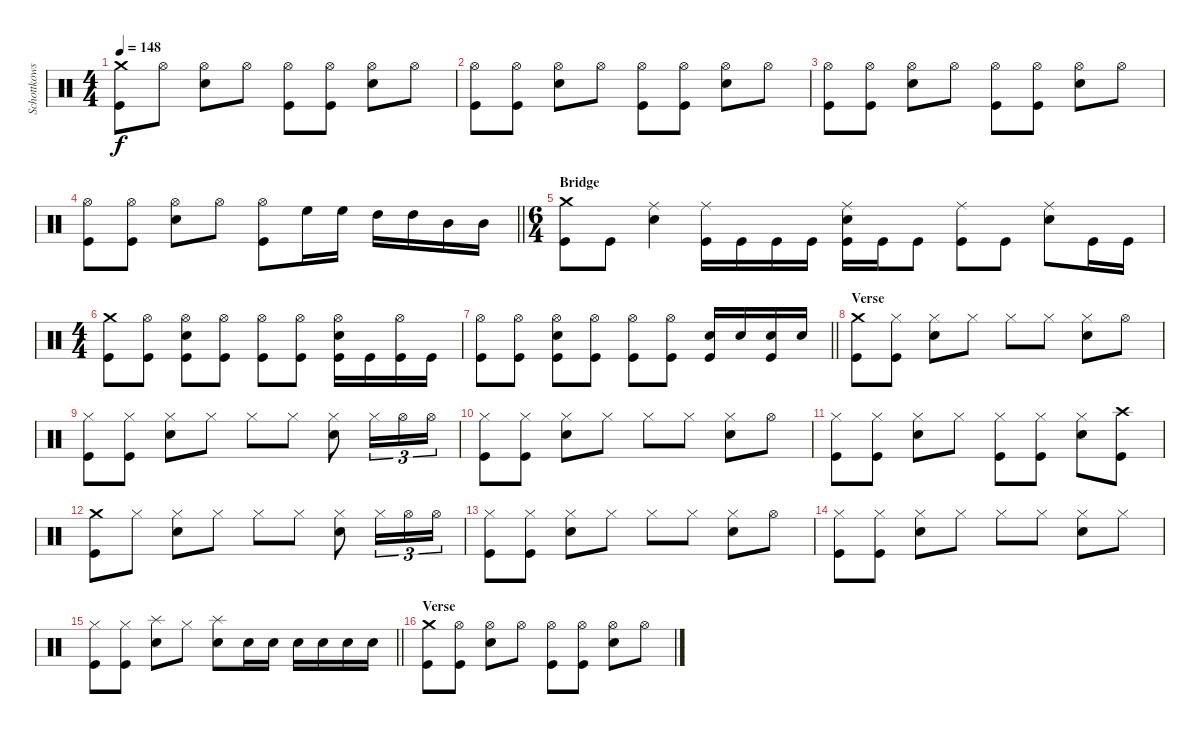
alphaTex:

\track ("Schottkowski" "Schottkows") {instrument percussion}
\staff {score}
\articulation defaults
\ts (4 4)
\tempo 148
\clef neutral
\ks c
("Crash medium (hit)" "Kick (hit)").8{dy f} "Hi-Hat (open)".8 ("Hi-Hat (open)" "Electric Snare (hit)").8 "Hi-Hat (open)".8 ("Hi-Hat (open)" "Kick (hit)").8 ("Hi-Hat (open)" "Kick (hit)").8 ("Hi-Hat (open)" "Electric Snare (hit)").8 "Hi-Hat (open)".8 |
("Hi-Hat (open)" "Kick (hit)").8 ("Hi-Hat (open)" "Kick (hit)").8 ("Hi-Hat (open)" "Electric Snare (hit)").8 "Hi-Hat (open)".8 ("Hi-Hat (open)" "Kick (hit)").8 ("Hi-Hat (open)" "Kick (hit)").8 ("Hi-Hat (open)" "Electric Snare (hit)").8 "Hi-Hat (open)".8 |
("Hi-Hat (open)" "Kick (hit)").8 ("Hi-Hat (open)" "Kick (hit)").8 ("Hi-Hat (open)" "Electric Snare (hit)").8 "Hi-Hat (open)".8 ("Hi-Hat (open)" "Kick (hit)").8 ("Hi-Hat (open)" "Kick (hit)").8 ("Hi-Hat (open)" "Electric Snare (hit)").8 "Hi-Hat (open)".8 |
\barLineRight lightlight
("Hi-Hat (open)" "Kick (hit)").8 ("Hi-Hat (open)" "Kick (hit)").8 ("Hi-Hat (open)" "Electric Snare (hit)").8 "Hi-Hat (open)".8 ("Hi-Hat (open)" "Kick (hit)").8 "High Floor Tom (hit)".16 "High Floor Tom (hit)".16 "High Tom (hit)".16 "High Tom (hit)".16 "Mid Tom (hit)".16 "Mid Tom (hit)".16 |
\ts (6 4)
\section ("" "Bridge")
("Crash medium (hit)" "Kick (hit)").8 "Kick (hit)".8 ("Ride (middle)" "Electric Snare (hit)").4 ("Ride (middle)" "Kick (hit)").16 "Kick (hit)".16 "Kick (hit)".16 "Kick (hit)".16 ("Ride (middle)" "Electric Snare (hit)" "Kick (hit)").16 "Kick (hit)".16 "Kick (hit)".8 ("Ride (middle)" "Kick (hit)").8 "Kick (hit)".8 ("Ride (middle)" "Electric Snare (hit)").8 "Kick (hit)".16 "Kick (hit)".16 |
\ts (4 4)
("Crash medium (hit)" "Kick (hit)").8 ("Hi-Hat (open)" "Kick (hit)").8 ("Hi-Hat (open)" "Electric Snare (hit)" "Kick (hit)").8 ("Hi-Hat (open)" "Kick (hit)").8 ("Hi-Hat (open)" "Kick (hit)").8 ("Hi-Hat (open)" "Kick (hit)").8 ("Hi-Hat (open)" "Electric Snare (hit)" "Kick (hit)").16 "Kick (hit)".16 ("Hi-Hat (open)" "Kick (hit)").16 "Kick (hit)".16 |
\barLineRight lightlight
("Hi-Hat (open)" "Kick (hit)").8 ("Hi-Hat (open)" "Kick (hit)").8 ("Hi-Hat (open)" "Electric Snare (hit)" "Kick (hit)").8 ("Hi-Hat (open)" "Kick (hit)").8 ("Hi-Hat (open)" "Kick (hit)").8 ("Hi-Hat (open)" "Kick (hit)").8 ("Electric Snare (hit)" "Kick (hit)").16 "Electric Snare (hit)".16 ("Electric Snare (hit)" "Kick (hit)").16 "Electric Snare (hit)".16 |
\section ("" "Verse")
("Crash medium (hit)" "Kick (hit)").8 ("Hi-Hat (closed)" "Kick (hit)").8 ("Hi-Hat (closed)" "Electric Snare (hit)").8 "Hi-Hat (closed)".8 "Hi-Hat (closed)".8 "Hi-Hat (closed)".8 ("Hi-Hat (closed)" "Electric Snare (hit)").8 "Hi-Hat (open)".8 |
("Hi-Hat (closed)" "Kick (hit)").8 ("Hi-Hat (closed)" "Kick (hit)").8 ("Hi-Hat (closed)" "Electric Snare (hit)").8 "Hi-Hat (closed)".8 "Hi-Hat (closed)".8 "Hi-Hat (closed)".8 ("Hi-Hat (closed)" "Electric Snare (hit)").8 "Hi-Hat (closed)".16{tu (3 2)} "Hi-Hat (open)".16{tu (3 2)} "Hi-Hat (open)".16{tu (3 2)} |
("Hi-Hat (closed)" "Kick (hit)").8 ("Hi-Hat (closed)" "Kick (hit)").8 ("Hi-Hat (closed)" "Electric Snare (hit)").8 "Hi-Hat (closed)".8 "Hi-Hat (closed)".8 "Hi-Hat (closed)".8 ("Hi-Hat (closed)" "Electric Snare (hit)").8 "Hi-Hat (open)".8 |
("Hi-Hat (closed)" "Kick (hit)").8 ("Hi-Hat (closed)" "Kick (hit)").8 ("Hi-Hat (closed)" "Electric Snare (hit)").8 "Hi-Hat (closed)".8 ("Hi-Hat (closed)" "Kick (hit)").8 ("Hi-Hat (closed)" "Kick (hit)").8 ("Hi-Hat (closed)" "Electric Snare (hit)").8 ("Crash high (hit)" "Kick (hit)").8 |
("Crash medium (hit)" "Kick (hit)").8 "Hi-Hat (closed)".8 ("Hi-Hat (closed)" "Electric Snare (hit)").8 "Hi-Hat (closed)".8 "Hi-Hat (closed)".8 "Hi-Hat (closed)".8 ("Hi-Hat (closed)" "Electric Snare (hit)").8 "Hi-Hat (closed)".16{tu (3 2)} "Hi-Hat (open)".16{tu (3 2)} "Hi-Hat (open)".16{tu (3 2)} |
("Hi-Hat (closed)" "Kick (hit)").8 ("Hi-Hat (closed)" "Kick (hit)").8 ("Hi-Hat (closed)" "Electric Snare (hit)").8 "Hi-Hat (closed)".8 "Hi-Hat (closed)".8 "Hi-Hat (closed)".8 ("Hi-Hat (closed)" "Electric Snare (hit)").8 "Hi-Hat (open)".8 |
("Hi-Hat (closed)" "Kick (hit)").8 ("Hi-Hat (closed)" "Kick (hit)").8 ("Hi-Hat (closed)" "Electric Snare (hit)").8 "Hi-Hat (closed)".8 "Hi-Hat (closed)".8 "Hi-Hat (closed)".8 ("Hi-Hat (closed)" "Electric Snare (hit)").8 "Hi-Hat (closed)".8 |
\barLineRight lightlight
("Hi-Hat (closed)" "Kick (hit)").8 ("Hi-Hat (closed)" "Kick (hit)").8 ("Splash (hit)" "Electric Snare (hit)").8 "Hi-Hat (closed)".8 ("Splash (hit)" "Electric Snare (hit)").8 "Electric Snare (hit)".16 "Electric Snare (hit)".16 "Electric Snare (hit)".16 "Electric Snare (hit)".16 "Electric Snare (hit)".16 "Electric Snare (hit)".16 |
\section ("" "Verse")
("Crash medium (hit)" "Kick (hit)").8 ("Hi-Hat (open)" "Kick (hit)").8 ("Hi-Hat (open)" "Electric Snare (hit)").8 "Hi-Hat (open)".8 ("Hi-Hat (open)" "Kick (hit)").8 ("Hi-Hat (open)" "Kick (hit)").8 ("Hi-Hat (open)" "Electric Snare (hit)").8 "Hi-Hat (open)".8
